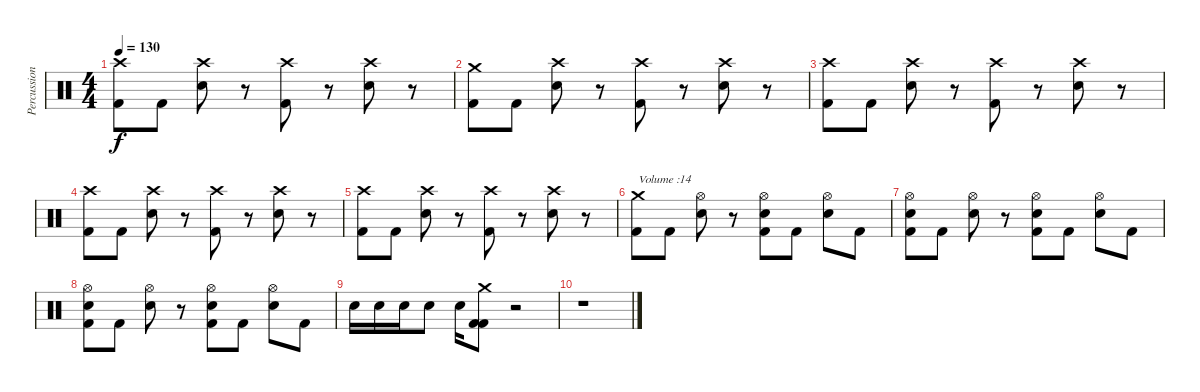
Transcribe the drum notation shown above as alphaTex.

\track ("Percussions" "Percussion") {instrument percussion}
\staff {score}
\articulation defaults
\ts (4 4)
\tempo 130
\clef neutral
\ks c
("Crash high (hit)" "Kick (hit) 2").8{dy f} "Kick (hit) 2".8 ("Crash high (hit)" "Electric Snare (hit)").8 r.8 ("Crash high (hit)" "Kick (hit) 2").8 r.8 ("Crash high (hit)" "Electric Snare (hit)").8 r.8 |
("Crash medium (hit)" "Kick (hit) 2").8 "Kick (hit) 2".8 ("Crash high (hit)" "Electric Snare (hit)").8 r.8 ("Crash high (hit)" "Kick (hit) 2").8 r.8 ("Crash high (hit)" "Electric Snare (hit)").8 r.8 |
("Crash high (hit)" "Kick (hit) 2").8 "Kick (hit) 2".8 ("Crash high (hit)" "Electric Snare (hit)").8 r.8 ("Crash high (hit)" "Kick (hit) 2").8 r.8 ("Crash high (hit)" "Electric Snare (hit)").8 r.8 |
("Crash high (hit)" "Kick (hit) 2").8 "Kick (hit) 2".8 ("Crash high (hit)" "Electric Snare (hit)").8 r.8 ("Crash high (hit)" "Kick (hit) 2").8 r.8 ("Crash high (hit)" "Electric Snare (hit)").8 r.8 |
("Crash high (hit)" "Kick (hit) 2").8 "Kick (hit) 2".8 ("Crash high (hit)" "Electric Snare (hit)").8 r.8 ("Crash high (hit)" "Kick (hit) 2").8 r.8 ("Crash high (hit)" "Electric Snare (hit)").8 r.8 |
("Crash medium (hit)" "Kick (hit) 2").8{txt "Volume :14"} "Kick (hit) 2".8 ("Hi-Hat (open)" "Electric Snare (hit)").8 r.8 ("Hi-Hat (open)" "Electric Snare (hit)" "Kick (hit) 2").8 "Kick (hit) 2".8 ("Hi-Hat (open)" "Electric Snare (hit)").8 "Kick (hit) 2".8 |
("Hi-Hat (open)" "Electric Snare (hit)" "Kick (hit) 2").8 "Kick (hit) 2".8 ("Hi-Hat (open)" "Electric Snare (hit)").8 r.8 ("Hi-Hat (open)" "Electric Snare (hit)" "Kick (hit) 2").8 "Kick (hit) 2".8 ("Hi-Hat (open)" "Electric Snare (hit)").8 "Kick (hit) 2".8 |
("Hi-Hat (open)" "Electric Snare (hit)" "Kick (hit) 2").8 "Kick (hit) 2".8 ("Hi-Hat (open)" "Electric Snare (hit)").8 r.8 ("Hi-Hat (open)" "Electric Snare (hit)" "Kick (hit) 2").8 "Kick (hit) 2".8 ("Hi-Hat (open)" "Electric Snare (hit)").8 "Kick (hit) 2".8 |
"Electric Snare (hit)".16 "Electric Snare (hit)".16 "Electric Snare (hit)".16 "Electric Snare (hit)".8 "Electric Snare (hit)".16 ("Crash medium (hit)" "Kick (hit) 2" "Kick (hit) 2").8 r.2 |
r.1
